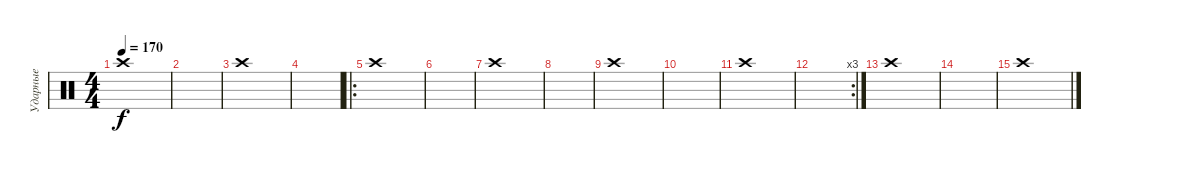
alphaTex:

\track ("Ударные" "Ударные") {instrument percussion}
\staff {score}
\articulation defaults
\ts (4 4)
\tempo 170
\clef neutral
\ks c "Crash high (hit)".1{dy f}
|
|
"Crash high (hit)".1 |
|
\ro "Crash high (hit)".1
|
|
"Crash high (hit)".1 |
|
"Crash high (hit)".1 |
|
"Crash high (hit)".1 |
\rc 3
|
"Crash high (hit)".1 |
|
"Crash high (hit)".1
